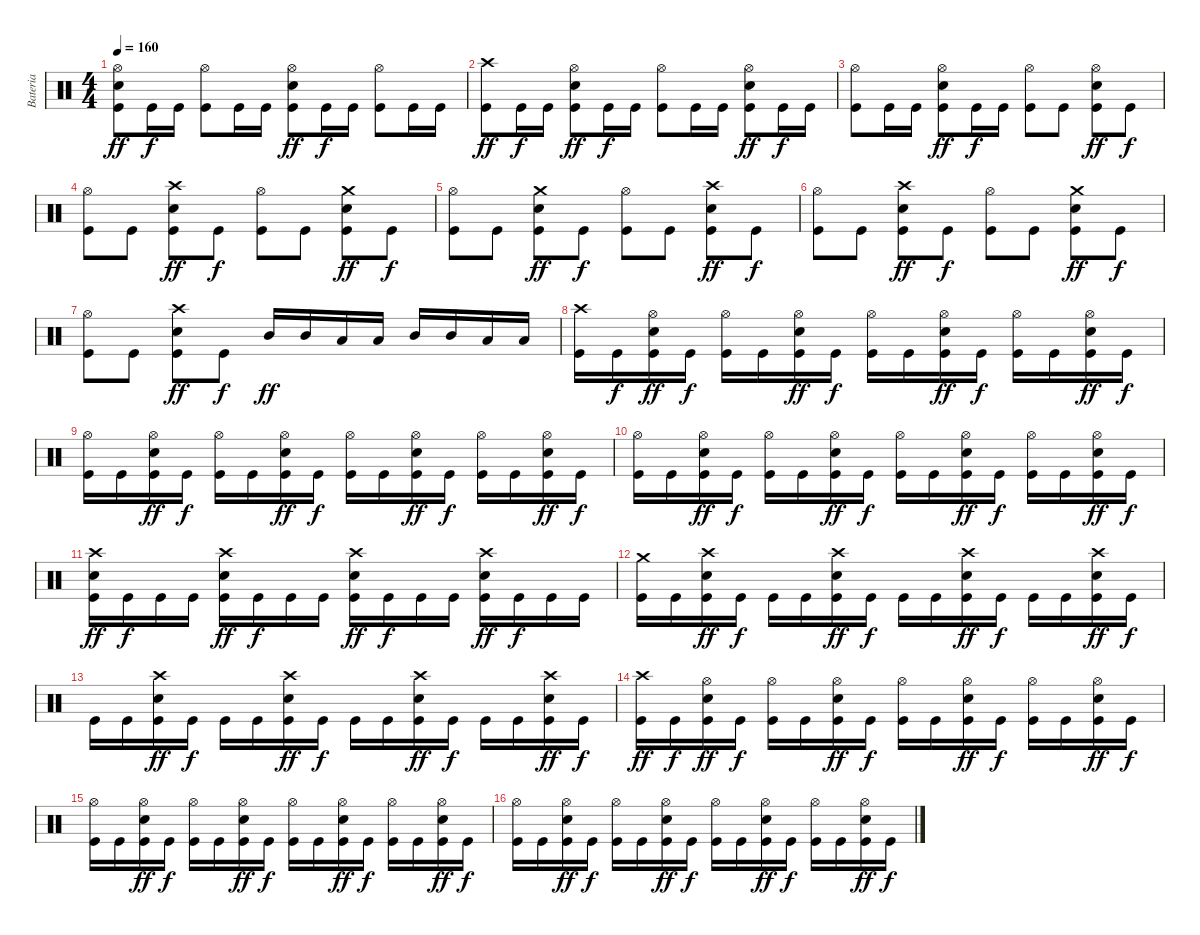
\track ("Bateria" "Bateria") {instrument percussion}
\staff {score}
\articulation defaults
\ts (4 4)
\tempo 160
\clef neutral
\ks c
("Kick (hit)" "Electric Snare (hit)" "Hi-Hat (open)").8{dy ff} "Kick (hit)".16{dy f} "Kick (hit)".16 ("Kick (hit)" "Hi-Hat (open)").8 "Kick (hit)".16 "Kick (hit)".16 ("Kick (hit)" "Electric Snare (hit)" "Hi-Hat (open)").8{dy ff} "Kick (hit)".16{dy f} "Kick (hit)".16 ("Kick (hit)" "Hi-Hat (open)").8 "Kick (hit)".16 "Kick (hit)".16 |
("Kick (hit)" "Crash high (hit)").8{dy ff} "Kick (hit)".16{dy f} "Kick (hit)".16 ("Kick (hit)" "Electric Snare (hit)" "Hi-Hat (open)").8{dy ff} "Kick (hit)".16{dy f} "Kick (hit)".16 ("Kick (hit)" "Hi-Hat (open)").8 "Kick (hit)".16 "Kick (hit)".16 ("Kick (hit)" "Electric Snare (hit)" "Hi-Hat (open)").8{dy ff} "Kick (hit)".16{dy f} "Kick (hit)".16 |
("Kick (hit)" "Hi-Hat (open)").8 "Kick (hit)".16 "Kick (hit)".16 ("Kick (hit)" "Electric Snare (hit)" "Hi-Hat (open)").8{dy ff} "Kick (hit)".16{dy f} "Kick (hit)".16 ("Kick (hit)" "Hi-Hat (open)").8 "Kick (hit)".8 ("Kick (hit)" "Electric Snare (hit)" "Hi-Hat (open)").8{dy ff} "Kick (hit)".8{dy f} |
("Kick (hit)" "Hi-Hat (open)").8 "Kick (hit)".8 ("Kick (hit)" "Electric Snare (hit)" "Crash high (hit)").8{dy ff} "Kick (hit)".8{dy f} ("Kick (hit)" "Hi-Hat (open)").8 "Kick (hit)".8 ("Kick (hit)" "Electric Snare (hit)" "Crash medium (hit)").8{dy ff} "Kick (hit)".8{dy f} |
("Kick (hit)" "Hi-Hat (open)").8 "Kick (hit)".8 ("Kick (hit)" "Electric Snare (hit)" "Crash medium (hit)").8{dy ff} "Kick (hit)".8{dy f} ("Kick (hit)" "Hi-Hat (open)").8 "Kick (hit)".8 ("Kick (hit)" "Electric Snare (hit)" "Crash high (hit)").8{dy ff} "Kick (hit)".8{dy f} |
("Kick (hit)" "Hi-Hat (open)").8 "Kick (hit)".8 ("Kick (hit)" "Electric Snare (hit)" "Crash high (hit)").8{dy ff} "Kick (hit)".8{dy f} ("Kick (hit)" "Hi-Hat (open)").8 "Kick (hit)".8 ("Kick (hit)" "Electric Snare (hit)" "Crash medium (hit)").8{dy ff} "Kick (hit)".8{dy f} |
("Kick (hit)" "Hi-Hat (open)").8 "Kick (hit)".8 ("Kick (hit)" "Electric Snare (hit)" "Crash high (hit)").8{dy ff} "Kick (hit)".8{dy f} "Mid Tom (hit)".16{dy ff} "Mid Tom (hit)".16 "Low Tom (hit)".16 "Low Tom (hit)".16 "Mid Tom (hit)".16 "Mid Tom (hit)".16 "Low Tom (hit)".16 "Low Tom (hit)".16 |
("Kick (hit)" "Crash high (hit)").16 "Kick (hit)".16{dy f} ("Kick (hit)" "Electric Snare (hit)" "Hi-Hat (open)").16{dy ff} "Kick (hit)".16{dy f} ("Kick (hit)" "Hi-Hat (open)").16 "Kick (hit)".16 ("Kick (hit)" "Electric Snare (hit)" "Hi-Hat (open)").16{dy ff} "Kick (hit)".16{dy f} ("Kick (hit)" "Hi-Hat (open)").16 "Kick (hit)".16 ("Kick (hit)" "Electric Snare (hit)" "Hi-Hat (open)").16{dy ff} "Kick (hit)".16{dy f} ("Kick (hit)" "Hi-Hat (open)").16 "Kick (hit)".16 ("Kick (hit)" "Electric Snare (hit)" "Hi-Hat (open)").16{dy ff} "Kick (hit)".16{dy f} |
("Kick (hit)" "Hi-Hat (open)").16 "Kick (hit)".16 ("Kick (hit)" "Electric Snare (hit)" "Hi-Hat (open)").16{dy ff} "Kick (hit)".16{dy f} ("Kick (hit)" "Hi-Hat (open)").16 "Kick (hit)".16 ("Kick (hit)" "Electric Snare (hit)" "Hi-Hat (open)").16{dy ff} "Kick (hit)".16{dy f} ("Kick (hit)" "Hi-Hat (open)").16 "Kick (hit)".16 ("Kick (hit)" "Electric Snare (hit)" "Hi-Hat (open)").16{dy ff} "Kick (hit)".16{dy f} ("Kick (hit)" "Hi-Hat (open)").16 "Kick (hit)".16 ("Kick (hit)" "Electric Snare (hit)" "Hi-Hat (open)").16{dy ff} "Kick (hit)".16{dy f} |
("Kick (hit)" "Hi-Hat (open)").16 "Kick (hit)".16 ("Kick (hit)" "Electric Snare (hit)" "Hi-Hat (open)").16{dy ff} "Kick (hit)".16{dy f} ("Kick (hit)" "Hi-Hat (open)").16 "Kick (hit)".16 ("Kick (hit)" "Electric Snare (hit)" "Hi-Hat (open)").16{dy ff} "Kick (hit)".16{dy f} ("Kick (hit)" "Hi-Hat (open)").16 "Kick (hit)".16 ("Kick (hit)" "Electric Snare (hit)" "Hi-Hat (open)").16{dy ff} "Kick (hit)".16{dy f} ("Kick (hit)" "Hi-Hat (open)").16 "Kick (hit)".16 ("Kick (hit)" "Electric Snare (hit)" "Hi-Hat (open)").16{dy ff} "Kick (hit)".16{dy f} |
("Kick (hit)" "Electric Snare (hit)" "Crash high (hit)").16{dy ff} "Kick (hit)".16{dy f} "Kick (hit)".16 "Kick (hit)".16 ("Kick (hit)" "Electric Snare (hit)" "Crash high (hit)").16{dy ff} "Kick (hit)".16{dy f} "Kick (hit)".16 "Kick (hit)".16 ("Kick (hit)" "Electric Snare (hit)" "Crash high (hit)").16{dy ff} "Kick (hit)".16{dy f} "Kick (hit)".16 "Kick (hit)".16 ("Kick (hit)" "Electric Snare (hit)" "Crash high (hit)").16{dy ff} "Kick (hit)".16{dy f} "Kick (hit)".16 "Kick (hit)".16 |
("Kick (hit)" "Crash medium (hit)").16 "Kick (hit)".16 ("Kick (hit)" "Electric Snare (hit)" "Crash high (hit)").16{dy ff} "Kick (hit)".16{dy f} "Kick (hit)".16 "Kick (hit)".16 ("Kick (hit)" "Electric Snare (hit)" "Crash high (hit)").16{dy ff} "Kick (hit)".16{dy f} "Kick (hit)".16 "Kick (hit)".16 ("Kick (hit)" "Electric Snare (hit)" "Crash high (hit)").16{dy ff} "Kick (hit)".16{dy f} "Kick (hit)".16 "Kick (hit)".16 ("Kick (hit)" "Electric Snare (hit)" "Crash high (hit)").16{dy ff} "Kick (hit)".16{dy f} |
"Kick (hit)".16 "Kick (hit)".16 ("Kick (hit)" "Electric Snare (hit)" "Crash high (hit)").16{dy ff} "Kick (hit)".16{dy f} "Kick (hit)".16 "Kick (hit)".16 ("Kick (hit)" "Electric Snare (hit)" "Crash high (hit)").16{dy ff} "Kick (hit)".16{dy f} "Kick (hit)".16 "Kick (hit)".16 ("Kick (hit)" "Electric Snare (hit)" "Crash high (hit)").16{dy ff} "Kick (hit)".16{dy f} "Kick (hit)".16 "Kick (hit)".16 ("Kick (hit)" "Electric Snare (hit)" "Crash high (hit)").16{dy ff} "Kick (hit)".16{dy f} |
("Kick (hit)" "Crash high (hit)").16{dy ff} "Kick (hit)".16{dy f} ("Kick (hit)" "Electric Snare (hit)" "Hi-Hat (open)").16{dy ff} "Kick (hit)".16{dy f} ("Kick (hit)" "Hi-Hat (open)").16 "Kick (hit)".16 ("Kick (hit)" "Electric Snare (hit)" "Hi-Hat (open)").16{dy ff} "Kick (hit)".16{dy f} ("Kick (hit)" "Hi-Hat (open)").16 "Kick (hit)".16 ("Kick (hit)" "Electric Snare (hit)" "Hi-Hat (open)").16{dy ff} "Kick (hit)".16{dy f} ("Kick (hit)" "Hi-Hat (open)").16 "Kick (hit)".16 ("Kick (hit)" "Electric Snare (hit)" "Hi-Hat (open)").16{dy ff} "Kick (hit)".16{dy f} |
("Kick (hit)" "Hi-Hat (open)").16 "Kick (hit)".16 ("Kick (hit)" "Electric Snare (hit)" "Hi-Hat (open)").16{dy ff} "Kick (hit)".16{dy f} ("Kick (hit)" "Hi-Hat (open)").16 "Kick (hit)".16 ("Kick (hit)" "Electric Snare (hit)" "Hi-Hat (open)").16{dy ff} "Kick (hit)".16{dy f} ("Kick (hit)" "Hi-Hat (open)").16 "Kick (hit)".16 ("Kick (hit)" "Electric Snare (hit)" "Hi-Hat (open)").16{dy ff} "Kick (hit)".16{dy f} ("Kick (hit)" "Hi-Hat (open)").16 "Kick (hit)".16 ("Kick (hit)" "Electric Snare (hit)" "Hi-Hat (open)").16{dy ff} "Kick (hit)".16{dy f} |
("Kick (hit)" "Hi-Hat (open)").16 "Kick (hit)".16 ("Kick (hit)" "Electric Snare (hit)" "Hi-Hat (open)").16{dy ff} "Kick (hit)".16{dy f} ("Kick (hit)" "Hi-Hat (open)").16 "Kick (hit)".16 ("Kick (hit)" "Electric Snare (hit)" "Hi-Hat (open)").16{dy ff} "Kick (hit)".16{dy f} ("Kick (hit)" "Hi-Hat (open)").16 "Kick (hit)".16 ("Kick (hit)" "Electric Snare (hit)" "Hi-Hat (open)").16{dy ff} "Kick (hit)".16{dy f} ("Kick (hit)" "Hi-Hat (open)").16 "Kick (hit)".16 ("Kick (hit)" "Electric Snare (hit)" "Hi-Hat (open)").16{dy ff} "Kick (hit)".16{dy f}
